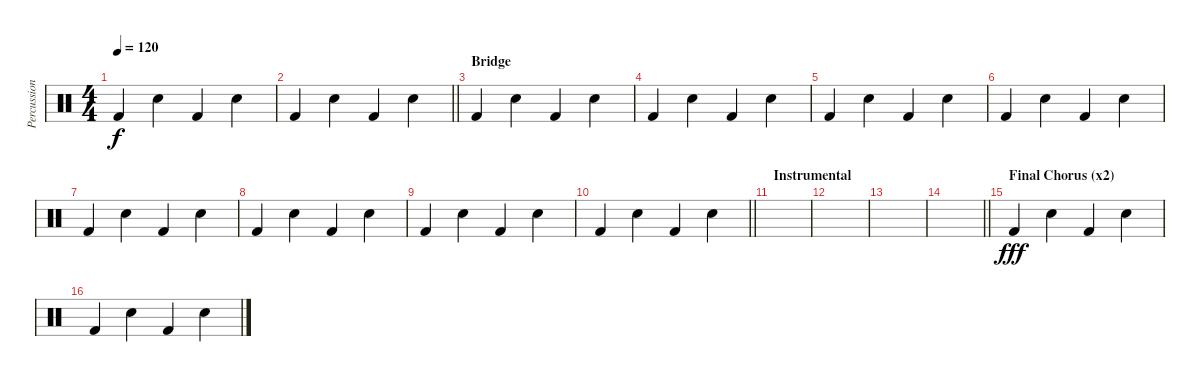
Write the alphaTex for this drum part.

\track ("Percussion" "Percussion") {instrument percussion}
\staff {score}
\articulation defaults
\ts (4 4)
\tempo 120
\clef neutral
\ks c "Kick (hit) 2".4{dy f} "Electric Snare (hit)".4 "Kick (hit) 2".4 "Electric Snare (hit)".4
|
\barLineRight lightlight "Kick (hit) 2".4 "Electric Snare (hit)".4 "Kick (hit) 2".4 "Electric Snare (hit)".4
|
\section ("" "Bridge")
"Kick (hit) 2".4 "Electric Snare (hit)".4 "Kick (hit) 2".4 "Electric Snare (hit)".4 |
"Kick (hit) 2".4 "Electric Snare (hit)".4 "Kick (hit) 2".4 "Electric Snare (hit)".4 |
"Kick (hit) 2".4 "Electric Snare (hit)".4 "Kick (hit) 2".4 "Electric Snare (hit)".4 |
"Kick (hit) 2".4 "Electric Snare (hit)".4 "Kick (hit) 2".4 "Electric Snare (hit)".4 |
"Kick (hit) 2".4 "Electric Snare (hit)".4 "Kick (hit) 2".4 "Electric Snare (hit)".4 |
"Kick (hit) 2".4 "Electric Snare (hit)".4 "Kick (hit) 2".4 "Electric Snare (hit)".4 |
"Kick (hit) 2".4 "Electric Snare (hit)".4 "Kick (hit) 2".4 "Electric Snare (hit)".4 |
\barLineRight lightlight "Kick (hit) 2".4 "Electric Snare (hit)".4 "Kick (hit) 2".4 "Electric Snare (hit)".4
|
\section ("" "Instrumental")
|
|
|
\barLineRight lightlight
|
\section ("" "Final Chorus (x2)")
"Kick (hit) 2".4{dy fff} "Electric Snare (hit)".4 "Kick (hit) 2".4 "Electric Snare (hit)".4 |
"Kick (hit) 2".4 "Electric Snare (hit)".4 "Kick (hit) 2".4 "Electric Snare (hit)".4
